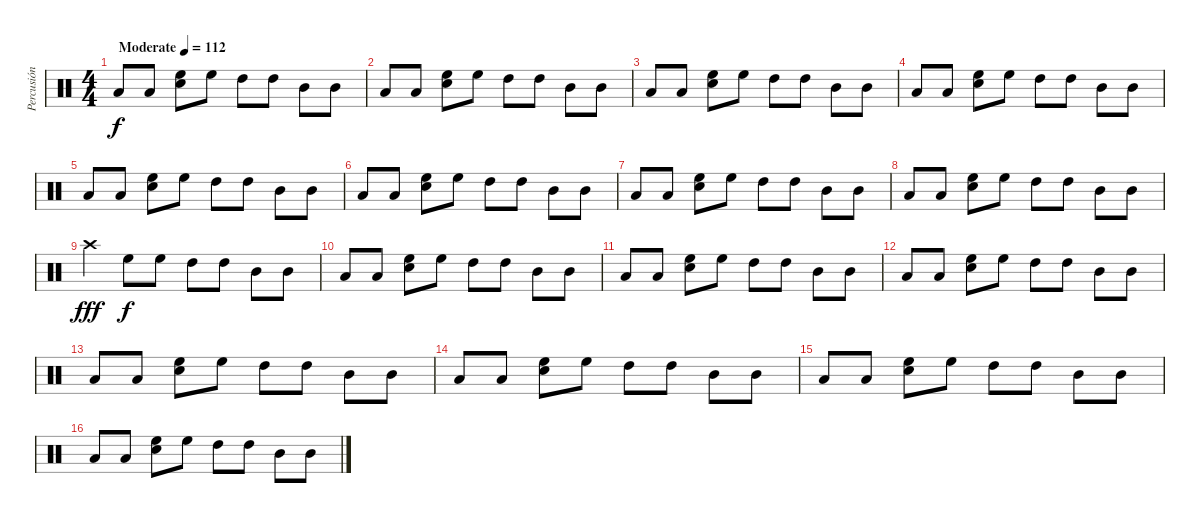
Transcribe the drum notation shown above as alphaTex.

\track ("Percusión" "Percusión") {instrument percussion}
\staff {score}
\articulation defaults
\ts (4 4)
\tempo (112 "Moderate")
\clef neutral
\ks c "Low Tom (hit)".8{dy f} "Low Tom (hit)".8
("High Floor Tom (hit)" "Electric Snare (hit)").8 "High Floor Tom (hit)".8 "High Tom (hit)".8 "High Tom (hit)".8 "Mid Tom (hit)".8 "Mid Tom (hit)".8 |
"Low Tom (hit)".8 "Low Tom (hit)".8 ("High Floor Tom (hit)" "Electric Snare (hit)").8 "High Floor Tom (hit)".8 "High Tom (hit)".8 "High Tom (hit)".8 "Mid Tom (hit)".8 "Mid Tom (hit)".8 |
"Low Tom (hit)".8 "Low Tom (hit)".8 ("High Floor Tom (hit)" "Electric Snare (hit)").8 "High Floor Tom (hit)".8 "High Tom (hit)".8 "High Tom (hit)".8 "Mid Tom (hit)".8 "Mid Tom (hit)".8 |
"Low Tom (hit)".8 "Low Tom (hit)".8 ("High Floor Tom (hit)" "Electric Snare (hit)").8 "High Floor Tom (hit)".8 "High Tom (hit)".8 "High Tom (hit)".8 "Mid Tom (hit)".8 "Mid Tom (hit)".8 |
"Low Tom (hit)".8 "Low Tom (hit)".8 ("High Floor Tom (hit)" "Electric Snare (hit)").8 "High Floor Tom (hit)".8 "High Tom (hit)".8 "High Tom (hit)".8 "Mid Tom (hit)".8 "Mid Tom (hit)".8 |
"Low Tom (hit)".8 "Low Tom (hit)".8 ("High Floor Tom (hit)" "Electric Snare (hit)").8 "High Floor Tom (hit)".8 "High Tom (hit)".8 "High Tom (hit)".8 "Mid Tom (hit)".8 "Mid Tom (hit)".8 |
"Low Tom (hit)".8 "Low Tom (hit)".8 ("High Floor Tom (hit)" "Electric Snare (hit)").8 "High Floor Tom (hit)".8 "High Tom (hit)".8 "High Tom (hit)".8 "Mid Tom (hit)".8 "Mid Tom (hit)".8 |
"Low Tom (hit)".8 "Low Tom (hit)".8 ("High Floor Tom (hit)" "Electric Snare (hit)").8 "High Floor Tom (hit)".8 "High Tom (hit)".8 "High Tom (hit)".8 "Mid Tom (hit)".8 "Mid Tom (hit)".8 |
"Crash high (hit)".4{dy fff} "High Floor Tom (hit)".8{dy f} "High Floor Tom (hit)".8 "High Tom (hit)".8 "High Tom (hit)".8 "Mid Tom (hit)".8 "Mid Tom (hit)".8 |
"Low Tom (hit)".8 "Low Tom (hit)".8 ("High Floor Tom (hit)" "Electric Snare (hit)").8 "High Floor Tom (hit)".8 "High Tom (hit)".8 "High Tom (hit)".8 "Mid Tom (hit)".8 "Mid Tom (hit)".8 |
"Low Tom (hit)".8 "Low Tom (hit)".8 ("High Floor Tom (hit)" "Electric Snare (hit)").8 "High Floor Tom (hit)".8 "High Tom (hit)".8 "High Tom (hit)".8 "Mid Tom (hit)".8 "Mid Tom (hit)".8 |
"Low Tom (hit)".8 "Low Tom (hit)".8 ("High Floor Tom (hit)" "Electric Snare (hit)").8 "High Floor Tom (hit)".8 "High Tom (hit)".8 "High Tom (hit)".8 "Mid Tom (hit)".8 "Mid Tom (hit)".8 |
"Low Tom (hit)".8 "Low Tom (hit)".8 ("High Floor Tom (hit)" "Electric Snare (hit)").8 "High Floor Tom (hit)".8 "High Tom (hit)".8 "High Tom (hit)".8 "Mid Tom (hit)".8 "Mid Tom (hit)".8 |
"Low Tom (hit)".8 "Low Tom (hit)".8 ("High Floor Tom (hit)" "Electric Snare (hit)").8 "High Floor Tom (hit)".8 "High Tom (hit)".8 "High Tom (hit)".8 "Mid Tom (hit)".8 "Mid Tom (hit)".8 |
"Low Tom (hit)".8 "Low Tom (hit)".8 ("High Floor Tom (hit)" "Electric Snare (hit)").8 "High Floor Tom (hit)".8 "High Tom (hit)".8 "High Tom (hit)".8 "Mid Tom (hit)".8 "Mid Tom (hit)".8 |
"Low Tom (hit)".8 "Low Tom (hit)".8 ("High Floor Tom (hit)" "Electric Snare (hit)").8 "High Floor Tom (hit)".8 "High Tom (hit)".8 "High Tom (hit)".8 "Mid Tom (hit)".8 "Mid Tom (hit)".8
